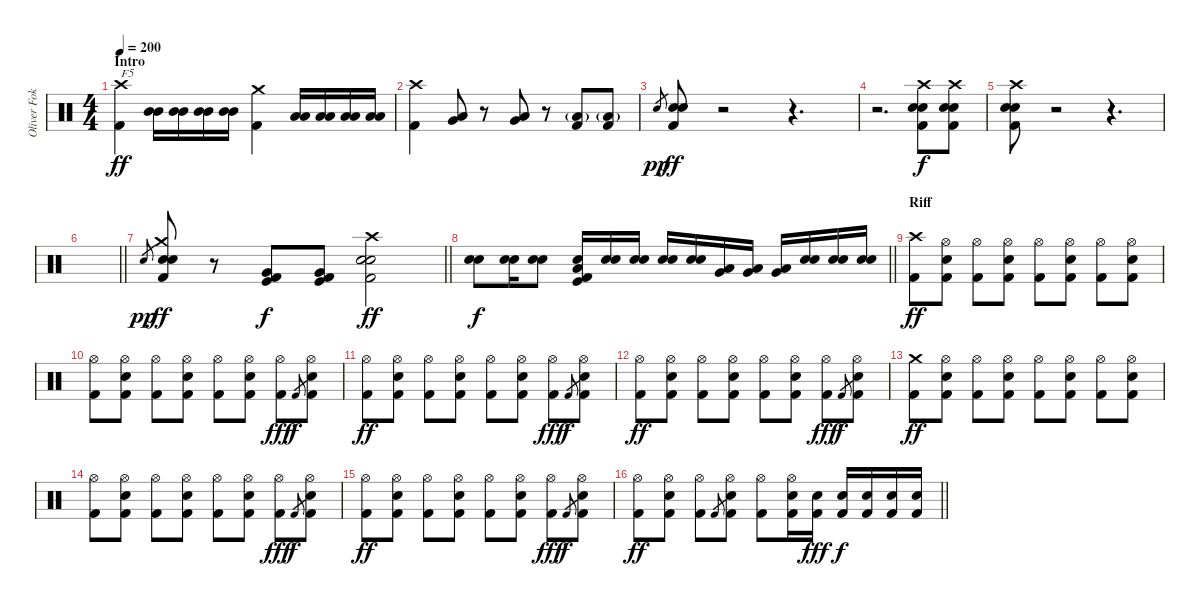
\track ("Oliver Fokin" "Oliver Fok") {instrument percussion}
\staff {score}
\articulation defaults
\ts (4 4)
\section ("" "Intro")
\tempo 200
\clef neutral
\ks c
("Crash high (hit)" "Kick (hit) 2").4{txt "F5" dy ff} ("Mid Tom (hit)" "Mid Tom (hit)").16 ("Mid Tom (hit)" "Mid Tom (hit)").16 ("Mid Tom (hit)" "Mid Tom (hit)").16 ("Mid Tom (hit)" "Mid Tom (hit)").16 ("Crash medium (hit)" "Kick (hit) 2").4 ("Low Tom (hit)" "Low Tom (hit)").16 ("Low Tom (hit)" "Low Tom (hit)").16 ("Low Tom (hit)" "Low Tom (hit)").16 ("Low Tom (hit)" "Low Tom (hit)").16 |
("Crash high (hit)" "Kick (hit) 2").4 ("Low Tom (hit)" "Very Low Tom (hit)").8 r.8 ("Low Tom (hit)" "Very Low Tom (hit)").8 r.8 ("Low Floor Tom (hit)"{g} "Kick (hit) 2").8 ("Low Floor Tom (hit)"{g} "Kick (hit) 2").8 |
"Electric Snare (hit)".8{gr dy pp} ("Snare (hit) 2" "Electric Snare (hit)" "Kick (hit) 2").8{dy ff} r.2 r.4{d} |
r.2{d} ("Crash high (hit)" "Snare (hit) 2" "Electric Snare (hit)" "Kick (hit) 2").8{dy f} ("Crash high (hit)" "Snare (hit) 2" "Electric Snare (hit)" "Kick (hit) 2").8 |
("Crash high (hit)" "Snare (hit) 2" "Electric Snare (hit)" "Kick (hit) 2").8 r.2 r.4{d} |
\barLineRight lightlight
|
\section ("" "")
\barLineRight lightlight "Electric Snare (hit)".8{gr dy pp}
("Crash medium (hit)" "Snare (hit) 2" "Electric Snare (hit)" "Kick (hit) 2").8{dy ff} r.8 ("Very Low Tom (hit)" "Kick (hit)" "Kick (hit) 2").8{dy f} ("Very Low Tom (hit)" "Kick (hit)" "Kick (hit) 2").8 ("Crash high (hit)" "Snare (hit) 2" "Electric Snare (hit)" "Kick (hit) 2").2{dy ff} |
\section ("" "")
\barLineRight lightlight
("Electric Snare (hit)" "Snare (hit) 2").8{dy f} ("Electric Snare (hit)" "Snare (hit) 2").16 ("Electric Snare (hit)" "Snare (hit) 2").8 ("Electric Snare (hit)" "Low Tom (hit)" "Kick (hit) 2" "Kick (hit)").16 ("Electric Snare (hit)" "Snare (hit) 2").16 ("Electric Snare (hit)" "Snare (hit) 2").16 ("Electric Snare (hit)" "Snare (hit) 2").16 ("Electric Snare (hit)" "Snare (hit) 2").16 ("Low Tom (hit)" "Very Low Tom (hit)").16 ("Low Tom (hit)" "Very Low Tom (hit)").16 ("Low Tom (hit)" "Very Low Tom (hit)").16 ("Electric Snare (hit)" "Snare (hit) 2").16 ("Electric Snare (hit)" "Snare (hit) 2").16 ("Electric Snare (hit)" "Snare (hit) 2").16 |
\section ("" "Riff")
("Crash high (hit)" "Kick (hit) 2").8{dy ff} ("Hi-Hat (open)" "Electric Snare (hit)" "Kick (hit) 2").8 ("Hi-Hat (open)" "Kick (hit) 2").8 ("Hi-Hat (open)" "Electric Snare (hit)" "Kick (hit) 2").8 ("Hi-Hat (open)" "Kick (hit) 2").8 ("Hi-Hat (open)" "Electric Snare (hit)" "Kick (hit) 2").8 ("Hi-Hat (open)" "Kick (hit) 2").8 ("Hi-Hat (open)" "Electric Snare (hit)" "Kick (hit) 2").8 |
("Hi-Hat (open)" "Kick (hit) 2").8 ("Hi-Hat (open)" "Electric Snare (hit)" "Kick (hit) 2").8 ("Hi-Hat (open)" "Kick (hit) 2").8 ("Hi-Hat (open)" "Electric Snare (hit)" "Kick (hit) 2").8 ("Hi-Hat (open)" "Kick (hit) 2").8 ("Hi-Hat (open)" "Electric Snare (hit)" "Kick (hit) 2").8 ("Hi-Hat (open)" "Kick (hit) 2").8{dy fff} "Kick (hit) 2".8{gr dy f} ("Hi-Hat (open)" "Electric Snare (hit)" "Kick (hit) 2").8 |
("Hi-Hat (open)" "Kick (hit) 2").8{dy ff} ("Hi-Hat (open)" "Electric Snare (hit)" "Kick (hit) 2").8 ("Hi-Hat (open)" "Kick (hit) 2").8 ("Hi-Hat (open)" "Electric Snare (hit)" "Kick (hit) 2").8 ("Hi-Hat (open)" "Kick (hit) 2").8 ("Hi-Hat (open)" "Electric Snare (hit)" "Kick (hit) 2").8 ("Hi-Hat (open)" "Kick (hit) 2").8{dy fff} "Kick (hit) 2".8{gr dy f} ("Hi-Hat (open)" "Electric Snare (hit)" "Kick (hit) 2").8 |
("Hi-Hat (open)" "Kick (hit) 2").8{dy ff} ("Hi-Hat (open)" "Electric Snare (hit)" "Kick (hit) 2").8 ("Hi-Hat (open)" "Kick (hit) 2").8 ("Hi-Hat (open)" "Electric Snare (hit)" "Kick (hit) 2").8 ("Hi-Hat (open)" "Kick (hit) 2").8 ("Hi-Hat (open)" "Electric Snare (hit)" "Kick (hit) 2").8 ("Hi-Hat (open)" "Kick (hit) 2").8{dy fff} "Kick (hit) 2".8{gr dy f} ("Hi-Hat (open)" "Electric Snare (hit)" "Kick (hit) 2").8 |
("Crash medium (hit)" "Kick (hit) 2").8{dy ff} ("Hi-Hat (open)" "Electric Snare (hit)" "Kick (hit) 2").8 ("Hi-Hat (open)" "Kick (hit) 2").8 ("Hi-Hat (open)" "Electric Snare (hit)" "Kick (hit) 2").8 ("Hi-Hat (open)" "Kick (hit) 2").8 ("Hi-Hat (open)" "Electric Snare (hit)" "Kick (hit) 2").8 ("Hi-Hat (open)" "Kick (hit) 2").8 ("Hi-Hat (open)" "Electric Snare (hit)" "Kick (hit) 2").8 |
("Hi-Hat (open)" "Kick (hit) 2").8 ("Hi-Hat (open)" "Electric Snare (hit)" "Kick (hit) 2").8 ("Hi-Hat (open)" "Kick (hit) 2").8 ("Hi-Hat (open)" "Electric Snare (hit)" "Kick (hit) 2").8 ("Hi-Hat (open)" "Kick (hit) 2").8 ("Hi-Hat (open)" "Electric Snare (hit)" "Kick (hit) 2").8 ("Hi-Hat (open)" "Kick (hit) 2").8{dy fff} "Kick (hit) 2".8{gr dy f} ("Hi-Hat (open)" "Electric Snare (hit)" "Kick (hit) 2").8 |
("Hi-Hat (open)" "Kick (hit) 2").8{dy ff} ("Hi-Hat (open)" "Electric Snare (hit)" "Kick (hit) 2").8 ("Hi-Hat (open)" "Kick (hit) 2").8 ("Hi-Hat (open)" "Electric Snare (hit)" "Kick (hit) 2").8 ("Hi-Hat (open)" "Kick (hit) 2").8 ("Hi-Hat (open)" "Electric Snare (hit)" "Kick (hit) 2").8 ("Hi-Hat (open)" "Kick (hit) 2").8{dy fff} "Kick (hit) 2".8{gr dy f} ("Hi-Hat (open)" "Electric Snare (hit)" "Kick (hit) 2").8 |
\barLineRight lightlight
("Hi-Hat (open)" "Kick (hit) 2").8{dy ff} ("Hi-Hat (open)" "Electric Snare (hit)" "Kick (hit) 2").8 ("Hi-Hat (open)" "Kick (hit) 2").8 "Kick (hit) 2".8{gr} ("Hi-Hat (open)" "Electric Snare (hit)" "Kick (hit) 2").8 ("Hi-Hat (open)" "Kick (hit) 2").8 ("Hi-Hat (open)" "Electric Snare (hit)" "Kick (hit) 2").16 ("Electric Snare (hit)" "Kick (hit) 2").16{dy fff} ("Electric Snare (hit)" "Kick (hit) 2").16{dy f} ("Electric Snare (hit)" "Kick (hit) 2").16 ("Electric Snare (hit)" "Kick (hit) 2").16 ("Electric Snare (hit)" "Kick (hit) 2").16
